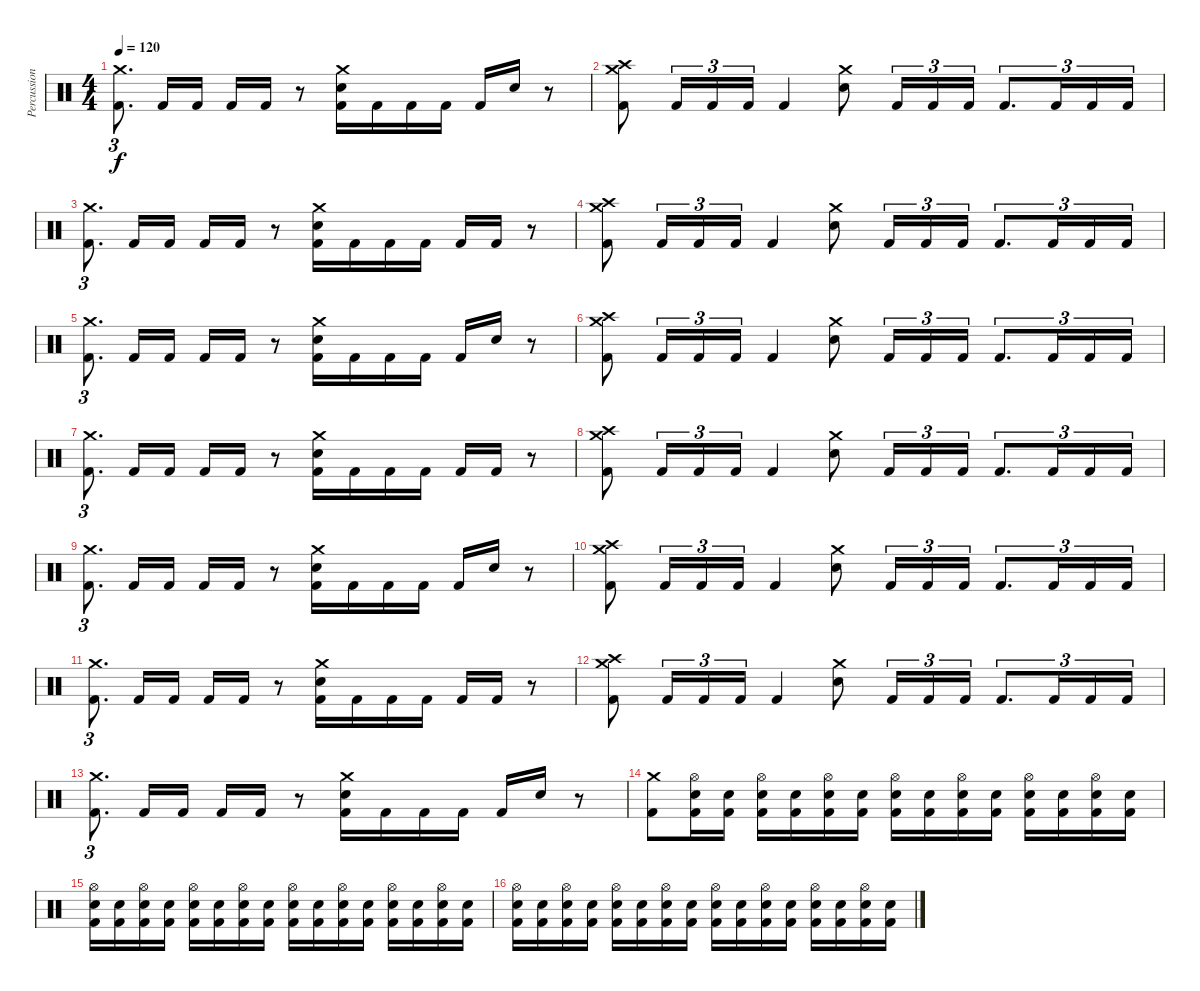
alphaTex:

\track ("Percussion" "Percussion") {instrument percussion}
\staff {score}
\articulation defaults
\ts (4 4)
\tempo 120
\clef neutral
\ks c
("Crash medium (hit)" "Kick (hit) 2").8{d tu (3 2) dy f} "Kick (hit) 2".16 "Kick (hit) 2".16 "Kick (hit) 2".16 "Kick (hit) 2".16 r.8 ("Crash medium (hit)" "Electric Snare (hit)" "Kick (hit) 2").16 "Kick (hit) 2".16 "Kick (hit) 2".16 "Kick (hit) 2".16 "Kick (hit) 2".16 "Electric Snare (hit)".16 r.8 |
("Crash high (hit)" "Crash medium (hit)" "Kick (hit) 2").8 "Kick (hit) 2".16{tu (3 2)} "Kick (hit) 2".16{tu (3 2)} "Kick (hit) 2".16{tu (3 2)} "Kick (hit) 2".4 ("Crash medium (hit)" "Electric Snare (hit)").8 "Kick (hit) 2".16{tu (3 2)} "Kick (hit) 2".16{tu (3 2)} "Kick (hit) 2".16{tu (3 2)} "Kick (hit) 2".8{d tu (3 2)} "Kick (hit) 2".16{tu (3 2)} "Kick (hit) 2".16{tu (3 2)} "Kick (hit) 2".16{tu (3 2)} |
("Crash medium (hit)" "Kick (hit) 2").8{d tu (3 2)} "Kick (hit) 2".16 "Kick (hit) 2".16 "Kick (hit) 2".16 "Kick (hit) 2".16 r.8 ("Crash medium (hit)" "Electric Snare (hit)" "Kick (hit) 2").16 "Kick (hit) 2".16 "Kick (hit) 2".16 "Kick (hit) 2".16 "Kick (hit) 2".16 "Kick (hit) 2".16 r.8 |
("Crash high (hit)" "Crash medium (hit)" "Kick (hit) 2").8 "Kick (hit) 2".16{tu (3 2)} "Kick (hit) 2".16{tu (3 2)} "Kick (hit) 2".16{tu (3 2)} "Kick (hit) 2".4 ("Crash medium (hit)" "Electric Snare (hit)").8 "Kick (hit) 2".16{tu (3 2)} "Kick (hit) 2".16{tu (3 2)} "Kick (hit) 2".16{tu (3 2)} "Kick (hit) 2".8{d tu (3 2)} "Kick (hit) 2".16{tu (3 2)} "Kick (hit) 2".16{tu (3 2)} "Kick (hit) 2".16{tu (3 2)} |
("Crash medium (hit)" "Kick (hit) 2").8{d tu (3 2)} "Kick (hit) 2".16 "Kick (hit) 2".16 "Kick (hit) 2".16 "Kick (hit) 2".16 r.8 ("Crash medium (hit)" "Electric Snare (hit)" "Kick (hit) 2").16 "Kick (hit) 2".16 "Kick (hit) 2".16 "Kick (hit) 2".16 "Kick (hit) 2".16 "Electric Snare (hit)".16 r.8 |
("Crash high (hit)" "Crash medium (hit)" "Kick (hit) 2").8 "Kick (hit) 2".16{tu (3 2)} "Kick (hit) 2".16{tu (3 2)} "Kick (hit) 2".16{tu (3 2)} "Kick (hit) 2".4 ("Crash medium (hit)" "Electric Snare (hit)").8 "Kick (hit) 2".16{tu (3 2)} "Kick (hit) 2".16{tu (3 2)} "Kick (hit) 2".16{tu (3 2)} "Kick (hit) 2".8{d tu (3 2)} "Kick (hit) 2".16{tu (3 2)} "Kick (hit) 2".16{tu (3 2)} "Kick (hit) 2".16{tu (3 2)} |
("Crash medium (hit)" "Kick (hit) 2").8{d tu (3 2)} "Kick (hit) 2".16 "Kick (hit) 2".16 "Kick (hit) 2".16 "Kick (hit) 2".16 r.8 ("Crash medium (hit)" "Electric Snare (hit)" "Kick (hit) 2").16 "Kick (hit) 2".16 "Kick (hit) 2".16 "Kick (hit) 2".16 "Kick (hit) 2".16 "Kick (hit) 2".16 r.8 |
("Crash high (hit)" "Crash medium (hit)" "Kick (hit) 2").8 "Kick (hit) 2".16{tu (3 2)} "Kick (hit) 2".16{tu (3 2)} "Kick (hit) 2".16{tu (3 2)} "Kick (hit) 2".4 ("Crash medium (hit)" "Electric Snare (hit)").8 "Kick (hit) 2".16{tu (3 2)} "Kick (hit) 2".16{tu (3 2)} "Kick (hit) 2".16{tu (3 2)} "Kick (hit) 2".8{d tu (3 2)} "Kick (hit) 2".16{tu (3 2)} "Kick (hit) 2".16{tu (3 2)} "Kick (hit) 2".16{tu (3 2)} |
("Crash medium (hit)" "Kick (hit) 2").8{d tu (3 2)} "Kick (hit) 2".16 "Kick (hit) 2".16 "Kick (hit) 2".16 "Kick (hit) 2".16 r.8 ("Crash medium (hit)" "Electric Snare (hit)" "Kick (hit) 2").16 "Kick (hit) 2".16 "Kick (hit) 2".16 "Kick (hit) 2".16 "Kick (hit) 2".16 "Electric Snare (hit)".16 r.8 |
("Crash high (hit)" "Crash medium (hit)" "Kick (hit) 2").8 "Kick (hit) 2".16{tu (3 2)} "Kick (hit) 2".16{tu (3 2)} "Kick (hit) 2".16{tu (3 2)} "Kick (hit) 2".4 ("Crash medium (hit)" "Electric Snare (hit)").8 "Kick (hit) 2".16{tu (3 2)} "Kick (hit) 2".16{tu (3 2)} "Kick (hit) 2".16{tu (3 2)} "Kick (hit) 2".8{d tu (3 2)} "Kick (hit) 2".16{tu (3 2)} "Kick (hit) 2".16{tu (3 2)} "Kick (hit) 2".16{tu (3 2)} |
("Crash medium (hit)" "Kick (hit) 2").8{d tu (3 2)} "Kick (hit) 2".16 "Kick (hit) 2".16 "Kick (hit) 2".16 "Kick (hit) 2".16 r.8 ("Crash medium (hit)" "Electric Snare (hit)" "Kick (hit) 2").16 "Kick (hit) 2".16 "Kick (hit) 2".16 "Kick (hit) 2".16 "Kick (hit) 2".16 "Kick (hit) 2".16 r.8 |
("Crash high (hit)" "Crash medium (hit)" "Kick (hit) 2").8 "Kick (hit) 2".16{tu (3 2)} "Kick (hit) 2".16{tu (3 2)} "Kick (hit) 2".16{tu (3 2)} "Kick (hit) 2".4 ("Crash medium (hit)" "Electric Snare (hit)").8 "Kick (hit) 2".16{tu (3 2)} "Kick (hit) 2".16{tu (3 2)} "Kick (hit) 2".16{tu (3 2)} "Kick (hit) 2".8{d tu (3 2)} "Kick (hit) 2".16{tu (3 2)} "Kick (hit) 2".16{tu (3 2)} "Kick (hit) 2".16{tu (3 2)} |
("Crash medium (hit)" "Kick (hit) 2").8{d tu (3 2)} "Kick (hit) 2".16 "Kick (hit) 2".16 "Kick (hit) 2".16 "Kick (hit) 2".16 r.8 ("Crash medium (hit)" "Electric Snare (hit)" "Kick (hit) 2").16 "Kick (hit) 2".16 "Kick (hit) 2".16 "Kick (hit) 2".16 "Kick (hit) 2".16 "Electric Snare (hit)".16 r.8 |
("Crash medium (hit)" "Kick (hit) 2").8 ("Hi-Hat (open)" "Electric Snare (hit)" "Kick (hit) 2").16 ("Electric Snare (hit)" "Kick (hit) 2").16 ("Hi-Hat (open)" "Electric Snare (hit)" "Kick (hit) 2").16 ("Electric Snare (hit)" "Kick (hit) 2").16 ("Hi-Hat (open)" "Electric Snare (hit)" "Kick (hit) 2").16 ("Electric Snare (hit)" "Kick (hit) 2").16 ("Hi-Hat (open)" "Electric Snare (hit)" "Kick (hit) 2").16 ("Electric Snare (hit)" "Kick (hit) 2").16 ("Hi-Hat (open)" "Electric Snare (hit)" "Kick (hit) 2").16 ("Electric Snare (hit)" "Kick (hit) 2").16 ("Hi-Hat (open)" "Electric Snare (hit)" "Kick (hit) 2").16 ("Electric Snare (hit)" "Kick (hit) 2").16 ("Hi-Hat (open)" "Electric Snare (hit)" "Kick (hit) 2").16 ("Electric Snare (hit)" "Kick (hit) 2").16 |
("Hi-Hat (open)" "Electric Snare (hit)" "Kick (hit) 2").16 ("Electric Snare (hit)" "Kick (hit) 2").16 ("Hi-Hat (open)" "Electric Snare (hit)" "Kick (hit) 2").16 ("Electric Snare (hit)" "Kick (hit) 2").16 ("Hi-Hat (open)" "Electric Snare (hit)" "Kick (hit) 2").16 ("Electric Snare (hit)" "Kick (hit) 2").16 ("Hi-Hat (open)" "Electric Snare (hit)" "Kick (hit) 2").16 ("Electric Snare (hit)" "Kick (hit) 2").16 ("Hi-Hat (open)" "Electric Snare (hit)" "Kick (hit) 2").16 ("Electric Snare (hit)" "Kick (hit) 2").16 ("Hi-Hat (open)" "Electric Snare (hit)" "Kick (hit) 2").16 ("Electric Snare (hit)" "Kick (hit) 2").16 ("Hi-Hat (open)" "Electric Snare (hit)" "Kick (hit) 2").16 ("Electric Snare (hit)" "Kick (hit) 2").16 ("Hi-Hat (open)" "Electric Snare (hit)" "Kick (hit) 2").16 ("Electric Snare (hit)" "Kick (hit) 2").16 |
("Hi-Hat (open)" "Electric Snare (hit)" "Kick (hit) 2").16 ("Electric Snare (hit)" "Kick (hit) 2").16 ("Hi-Hat (open)" "Electric Snare (hit)" "Kick (hit) 2").16 ("Electric Snare (hit)" "Kick (hit) 2").16 ("Hi-Hat (open)" "Electric Snare (hit)" "Kick (hit) 2").16 ("Electric Snare (hit)" "Kick (hit) 2").16 ("Hi-Hat (open)" "Electric Snare (hit)" "Kick (hit) 2").16 ("Electric Snare (hit)" "Kick (hit) 2").16 ("Hi-Hat (open)" "Electric Snare (hit)" "Kick (hit) 2").16 ("Electric Snare (hit)" "Kick (hit) 2").16 ("Hi-Hat (open)" "Electric Snare (hit)" "Kick (hit) 2").16 ("Electric Snare (hit)" "Kick (hit) 2").16 ("Hi-Hat (open)" "Electric Snare (hit)" "Kick (hit) 2").16 ("Electric Snare (hit)" "Kick (hit) 2").16 ("Hi-Hat (open)" "Electric Snare (hit)" "Kick (hit) 2").16 ("Electric Snare (hit)" "Kick (hit) 2").16
